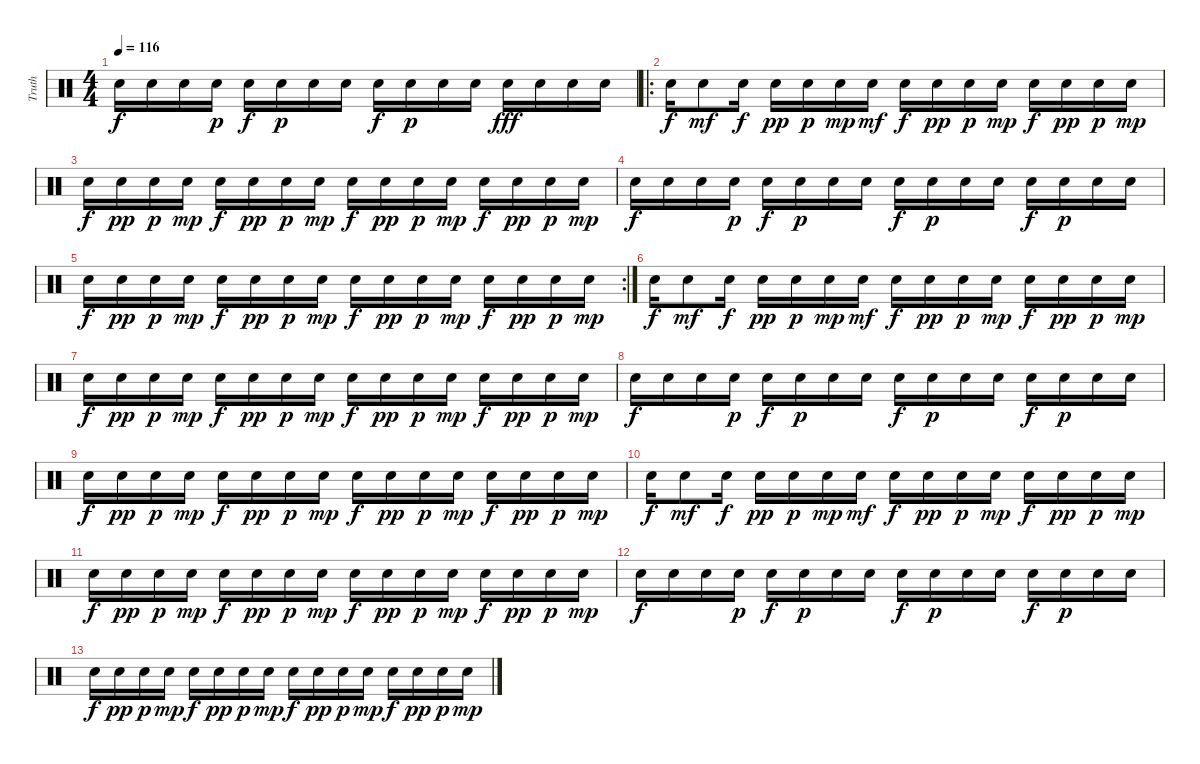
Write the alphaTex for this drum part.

\track ("Truth" "Truth") {instrument percussion}
\staff {score}
\articulation defaults
\ts (4 4)
\tempo 116
\clef neutral
\ks c "Electric Snare (hit)".16{dy f} "Electric Snare (hit)".16 "Electric Snare (hit)".16 "Snare (hit) 2".16{dy p} "Electric Snare (hit)".16{dy f} "Snare (hit) 2".16{dy p} "Snare (hit) 2".16 "Snare (hit) 2".16 "Electric Snare (hit)".16{dy f} "Snare (hit) 2".16{dy p} "Snare (hit) 2".16 "Snare (hit) 2".16 "Electric Snare (hit)".16{dy fff} "Electric Snare (hit)".16 "Electric Snare (hit)".16 "Electric Snare (hit)".16
|
\ro "Electric Snare (hit)".16{dy f} "Electric Snare (hit)".8{dy mf} "Electric Snare (hit)".16{dy f} "Snare (hit) 2".16{dy pp} "Snare (hit) 2".16{dy p} "Snare (hit) 2".16{dy mp} "Snare (hit) 2".16{dy mf} "Electric Snare (hit)".16{dy f} "Snare (hit) 2".16{dy pp} "Snare (hit) 2".16{dy p} "Snare (hit) 2".16{dy mp} "Electric Snare (hit)".16{dy f} "Snare (hit) 2".16{dy pp} "Snare (hit) 2".16{dy p} "Snare (hit) 2".16{dy mp}
|
"Electric Snare (hit)".16{dy f} "Snare (hit) 2".16{dy pp} "Snare (hit) 2".16{dy p} "Snare (hit) 2".16{dy mp} "Electric Snare (hit)".16{dy f} "Snare (hit) 2".16{dy pp} "Snare (hit) 2".16{dy p} "Snare (hit) 2".16{dy mp} "Electric Snare (hit)".16{dy f} "Snare (hit) 2".16{dy pp} "Snare (hit) 2".16{dy p} "Snare (hit) 2".16{dy mp} "Electric Snare (hit)".16{dy f} "Snare (hit) 2".16{dy pp} "Snare (hit) 2".16{dy p} "Snare (hit) 2".16{dy mp} |
"Electric Snare (hit)".16{dy f} "Electric Snare (hit)".16 "Electric Snare (hit)".16 "Snare (hit) 2".16{dy p} "Electric Snare (hit)".16{dy f} "Snare (hit) 2".16{dy p} "Snare (hit) 2".16 "Snare (hit) 2".16 "Electric Snare (hit)".16{dy f} "Snare (hit) 2".16{dy p} "Snare (hit) 2".16 "Snare (hit) 2".16 "Electric Snare (hit)".16{dy f} "Snare (hit) 2".16{dy p} "Snare (hit) 2".16 "Snare (hit) 2".16 |
\rc 2 "Electric Snare (hit)".16{dy f} "Snare (hit) 2".16{dy pp} "Snare (hit) 2".16{dy p} "Snare (hit) 2".16{dy mp} "Electric Snare (hit)".16{dy f} "Snare (hit) 2".16{dy pp} "Snare (hit) 2".16{dy p} "Snare (hit) 2".16{dy mp} "Electric Snare (hit)".16{dy f} "Snare (hit) 2".16{dy pp} "Snare (hit) 2".16{dy p} "Snare (hit) 2".16{dy mp} "Electric Snare (hit)".16{dy f} "Snare (hit) 2".16{dy pp} "Snare (hit) 2".16{dy p} "Snare (hit) 2".16{dy mp}
|
"Electric Snare (hit)".16{dy f} "Electric Snare (hit)".8{dy mf} "Electric Snare (hit)".16{dy f} "Snare (hit) 2".16{dy pp} "Snare (hit) 2".16{dy p} "Snare (hit) 2".16{dy mp} "Snare (hit) 2".16{dy mf} "Electric Snare (hit)".16{dy f} "Snare (hit) 2".16{dy pp} "Snare (hit) 2".16{dy p} "Snare (hit) 2".16{dy mp} "Electric Snare (hit)".16{dy f} "Snare (hit) 2".16{dy pp} "Snare (hit) 2".16{dy p} "Snare (hit) 2".16{dy mp} |
"Electric Snare (hit)".16{dy f} "Snare (hit) 2".16{dy pp} "Snare (hit) 2".16{dy p} "Snare (hit) 2".16{dy mp} "Electric Snare (hit)".16{dy f} "Snare (hit) 2".16{dy pp} "Snare (hit) 2".16{dy p} "Snare (hit) 2".16{dy mp} "Electric Snare (hit)".16{dy f} "Snare (hit) 2".16{dy pp} "Snare (hit) 2".16{dy p} "Snare (hit) 2".16{dy mp} "Electric Snare (hit)".16{dy f} "Snare (hit) 2".16{dy pp} "Snare (hit) 2".16{dy p} "Snare (hit) 2".16{dy mp} |
"Electric Snare (hit)".16{dy f} "Electric Snare (hit)".16 "Electric Snare (hit)".16 "Snare (hit) 2".16{dy p} "Electric Snare (hit)".16{dy f} "Snare (hit) 2".16{dy p} "Snare (hit) 2".16 "Snare (hit) 2".16 "Electric Snare (hit)".16{dy f} "Snare (hit) 2".16{dy p} "Snare (hit) 2".16 "Snare (hit) 2".16 "Electric Snare (hit)".16{dy f} "Snare (hit) 2".16{dy p} "Snare (hit) 2".16 "Snare (hit) 2".16 |
"Electric Snare (hit)".16{dy f} "Snare (hit) 2".16{dy pp} "Snare (hit) 2".16{dy p} "Snare (hit) 2".16{dy mp} "Electric Snare (hit)".16{dy f} "Snare (hit) 2".16{dy pp} "Snare (hit) 2".16{dy p} "Snare (hit) 2".16{dy mp} "Electric Snare (hit)".16{dy f} "Snare (hit) 2".16{dy pp} "Snare (hit) 2".16{dy p} "Snare (hit) 2".16{dy mp} "Electric Snare (hit)".16{dy f} "Snare (hit) 2".16{dy pp} "Snare (hit) 2".16{dy p} "Snare (hit) 2".16{dy mp} |
"Electric Snare (hit)".16{dy f} "Electric Snare (hit)".8{dy mf} "Electric Snare (hit)".16{dy f} "Snare (hit) 2".16{dy pp} "Snare (hit) 2".16{dy p} "Snare (hit) 2".16{dy mp} "Snare (hit) 2".16{dy mf} "Electric Snare (hit)".16{dy f} "Snare (hit) 2".16{dy pp} "Snare (hit) 2".16{dy p} "Snare (hit) 2".16{dy mp} "Electric Snare (hit)".16{dy f} "Snare (hit) 2".16{dy pp} "Snare (hit) 2".16{dy p} "Snare (hit) 2".16{dy mp} |
"Electric Snare (hit)".16{dy f} "Snare (hit) 2".16{dy pp} "Snare (hit) 2".16{dy p} "Snare (hit) 2".16{dy mp} "Electric Snare (hit)".16{dy f} "Snare (hit) 2".16{dy pp} "Snare (hit) 2".16{dy p} "Snare (hit) 2".16{dy mp} "Electric Snare (hit)".16{dy f} "Snare (hit) 2".16{dy pp} "Snare (hit) 2".16{dy p} "Snare (hit) 2".16{dy mp} "Electric Snare (hit)".16{dy f} "Snare (hit) 2".16{dy pp} "Snare (hit) 2".16{dy p} "Snare (hit) 2".16{dy mp} |
"Electric Snare (hit)".16{dy f} "Electric Snare (hit)".16 "Electric Snare (hit)".16 "Snare (hit) 2".16{dy p} "Electric Snare (hit)".16{dy f} "Snare (hit) 2".16{dy p} "Snare (hit) 2".16 "Snare (hit) 2".16 "Electric Snare (hit)".16{dy f} "Snare (hit) 2".16{dy p} "Snare (hit) 2".16 "Snare (hit) 2".16 "Electric Snare (hit)".16{dy f} "Snare (hit) 2".16{dy p} "Snare (hit) 2".16 "Snare (hit) 2".16 |
"Electric Snare (hit)".16{dy f} "Snare (hit) 2".16{dy pp} "Snare (hit) 2".16{dy p} "Snare (hit) 2".16{dy mp} "Electric Snare (hit)".16{dy f} "Snare (hit) 2".16{dy pp} "Snare (hit) 2".16{dy p} "Snare (hit) 2".16{dy mp} "Electric Snare (hit)".16{dy f} "Snare (hit) 2".16{dy pp} "Snare (hit) 2".16{dy p} "Snare (hit) 2".16{dy mp} "Electric Snare (hit)".16{dy f} "Snare (hit) 2".16{dy pp} "Snare (hit) 2".16{dy p} "Snare (hit) 2".16{dy mp}
